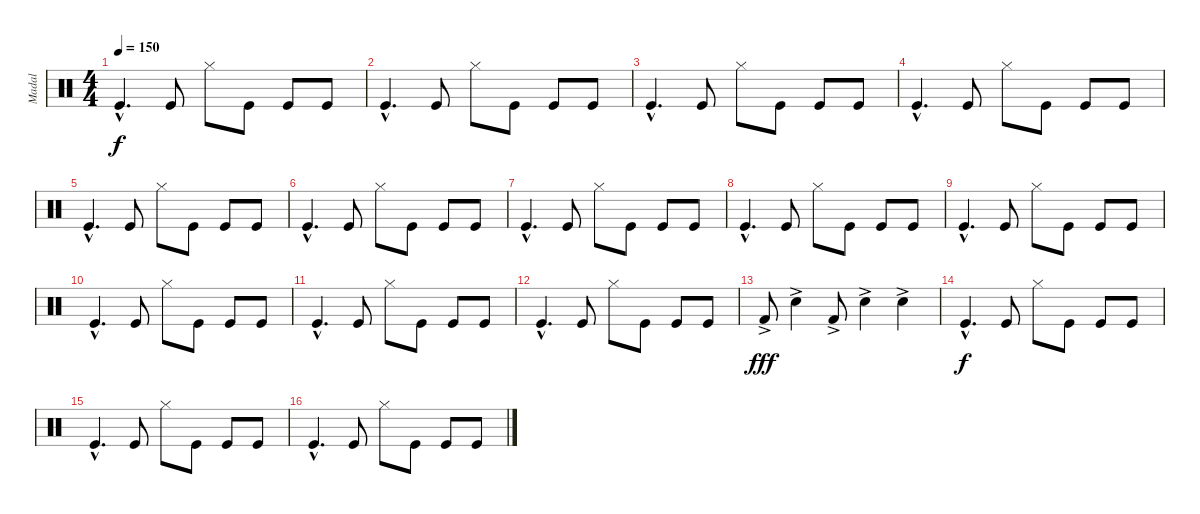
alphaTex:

\track ("Madal" "Madal") {instrument percussion}
\staff {score}
\articulation defaults
\ts (4 4)
\tempo 150
\clef neutral
\ks c "Kick (hit)"{hac}.4{d dy f} "Kick (hit)".8 "Hi-Hat (closed)".8 "Kick (hit)".8 "Kick (hit)".8 "Kick (hit)".8
|
"Kick (hit)"{hac}.4{d} "Kick (hit)".8 "Hi-Hat (closed)".8 "Kick (hit)".8 "Kick (hit)".8 "Kick (hit)".8 |
"Kick (hit)"{hac}.4{d} "Kick (hit)".8 "Hi-Hat (closed)".8 "Kick (hit)".8 "Kick (hit)".8 "Kick (hit)".8 |
"Kick (hit)"{hac}.4{d} "Kick (hit)".8 "Hi-Hat (closed)".8 "Kick (hit)".8 "Kick (hit)".8 "Kick (hit)".8 |
"Kick (hit)"{hac}.4{d} "Kick (hit)".8 "Hi-Hat (closed)".8 "Kick (hit)".8 "Kick (hit)".8 "Kick (hit)".8 |
"Kick (hit)"{hac}.4{d} "Kick (hit)".8 "Hi-Hat (closed)".8 "Kick (hit)".8 "Kick (hit)".8 "Kick (hit)".8 |
"Kick (hit)"{hac}.4{d} "Kick (hit)".8 "Hi-Hat (closed)".8 "Kick (hit)".8 "Kick (hit)".8 "Kick (hit)".8 |
"Kick (hit)"{hac}.4{d} "Kick (hit)".8 "Hi-Hat (closed)".8 "Kick (hit)".8 "Kick (hit)".8 "Kick (hit)".8 |
"Kick (hit)"{hac}.4{d} "Kick (hit)".8 "Hi-Hat (closed)".8 "Kick (hit)".8 "Kick (hit)".8 "Kick (hit)".8 |
"Kick (hit)"{hac}.4{d} "Kick (hit)".8 "Hi-Hat (closed)".8 "Kick (hit)".8 "Kick (hit)".8 "Kick (hit)".8 |
"Kick (hit)"{hac}.4{d} "Kick (hit)".8 "Hi-Hat (closed)".8 "Kick (hit)".8 "Kick (hit)".8 "Kick (hit)".8 |
"Kick (hit)"{hac}.4{d} "Kick (hit)".8 "Hi-Hat (closed)".8 "Kick (hit)".8 "Kick (hit)".8 "Kick (hit)".8 |
"Kick (hit) 2"{ac}.8{dy fff volume 6} "Electric Snare (hit)"{ac}.4 "Kick (hit) 2"{ac}.8 "Electric Snare (hit)"{ac}.4 "Electric Snare (hit)"{ac}.4 |
"Kick (hit)"{hac}.4{d dy f} "Kick (hit)".8 "Hi-Hat (closed)".8 "Kick (hit)".8 "Kick (hit)".8 "Kick (hit)".8 |
"Kick (hit)"{hac}.4{d} "Kick (hit)".8 "Hi-Hat (closed)".8 "Kick (hit)".8 "Kick (hit)".8 "Kick (hit)".8 |
"Kick (hit)"{hac}.4{d} "Kick (hit)".8 "Hi-Hat (closed)".8 "Kick (hit)".8 "Kick (hit)".8 "Kick (hit)".8
